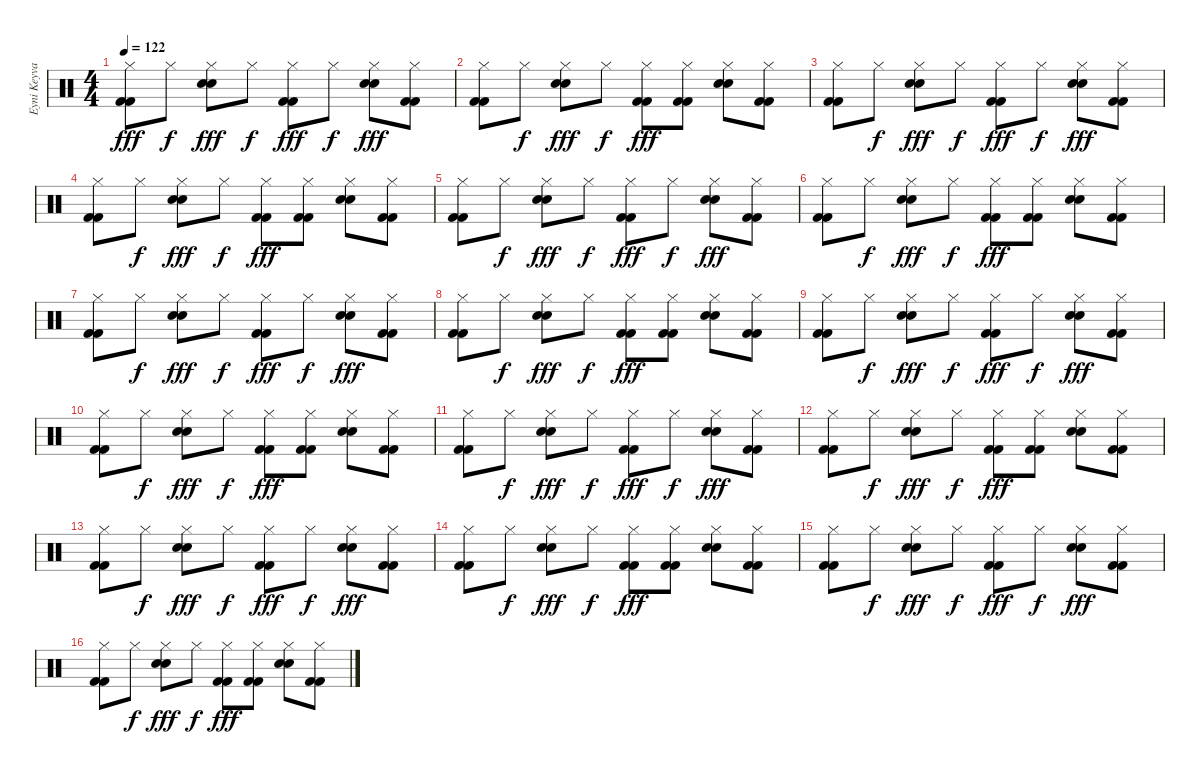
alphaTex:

\track ("Eyni Keyvanshokoh" "Eyni Keyva") {instrument percussion}
\staff {score}
\articulation defaults
\ts (4 4)
\tempo 122
\clef neutral
\ks c
("Hi-Hat (closed)" "Kick (hit) 2" "Kick (hit) 2").8{dy fff} "Hi-Hat (closed)".8{dy f} ("Hi-Hat (closed)" "Electric Snare (hit)" "Electric Snare (hit)").8{dy fff} "Hi-Hat (closed)".8{dy f} ("Hi-Hat (closed)" "Kick (hit) 2" "Kick (hit) 2").8{dy fff} "Hi-Hat (closed)".8{dy f} ("Hi-Hat (closed)" "Electric Snare (hit)" "Electric Snare (hit)").8{dy fff} ("Hi-Hat (closed)" "Kick (hit) 2" "Kick (hit) 2").8 |
("Hi-Hat (closed)" "Kick (hit) 2" "Kick (hit) 2").8 "Hi-Hat (closed)".8{dy f} ("Hi-Hat (closed)" "Electric Snare (hit)" "Electric Snare (hit)").8{dy fff} "Hi-Hat (closed)".8{dy f} ("Hi-Hat (closed)" "Kick (hit) 2" "Kick (hit) 2").8{dy fff} ("Hi-Hat (closed)" "Kick (hit) 2" "Kick (hit) 2").8 ("Hi-Hat (closed)" "Electric Snare (hit)" "Electric Snare (hit)").8 ("Hi-Hat (closed)" "Kick (hit) 2" "Kick (hit) 2").8 |
("Hi-Hat (closed)" "Kick (hit) 2" "Kick (hit) 2").8 "Hi-Hat (closed)".8{dy f} ("Hi-Hat (closed)" "Electric Snare (hit)" "Electric Snare (hit)").8{dy fff} "Hi-Hat (closed)".8{dy f} ("Hi-Hat (closed)" "Kick (hit) 2" "Kick (hit) 2").8{dy fff} "Hi-Hat (closed)".8{dy f} ("Hi-Hat (closed)" "Electric Snare (hit)" "Electric Snare (hit)").8{dy fff} ("Hi-Hat (closed)" "Kick (hit) 2" "Kick (hit) 2").8 |
("Hi-Hat (closed)" "Kick (hit) 2" "Kick (hit) 2").8 "Hi-Hat (closed)".8{dy f} ("Hi-Hat (closed)" "Electric Snare (hit)" "Electric Snare (hit)").8{dy fff} "Hi-Hat (closed)".8{dy f} ("Hi-Hat (closed)" "Kick (hit) 2" "Kick (hit) 2").8{dy fff} ("Hi-Hat (closed)" "Kick (hit) 2" "Kick (hit) 2").8 ("Hi-Hat (closed)" "Electric Snare (hit)" "Electric Snare (hit)").8 ("Hi-Hat (closed)" "Kick (hit) 2" "Kick (hit) 2").8 |
("Hi-Hat (closed)" "Kick (hit) 2" "Kick (hit) 2").8 "Hi-Hat (closed)".8{dy f} ("Hi-Hat (closed)" "Electric Snare (hit)" "Electric Snare (hit)").8{dy fff} "Hi-Hat (closed)".8{dy f} ("Hi-Hat (closed)" "Kick (hit) 2" "Kick (hit) 2").8{dy fff} "Hi-Hat (closed)".8{dy f} ("Hi-Hat (closed)" "Electric Snare (hit)" "Electric Snare (hit)").8{dy fff} ("Hi-Hat (closed)" "Kick (hit) 2" "Kick (hit) 2").8 |
("Hi-Hat (closed)" "Kick (hit) 2" "Kick (hit) 2").8 "Hi-Hat (closed)".8{dy f} ("Hi-Hat (closed)" "Electric Snare (hit)" "Electric Snare (hit)").8{dy fff} "Hi-Hat (closed)".8{dy f} ("Hi-Hat (closed)" "Kick (hit) 2" "Kick (hit) 2").8{dy fff} ("Hi-Hat (closed)" "Kick (hit) 2" "Kick (hit) 2").8 ("Hi-Hat (closed)" "Electric Snare (hit)" "Electric Snare (hit)").8 ("Hi-Hat (closed)" "Kick (hit) 2" "Kick (hit) 2").8 |
("Hi-Hat (closed)" "Kick (hit) 2" "Kick (hit) 2").8 "Hi-Hat (closed)".8{dy f} ("Hi-Hat (closed)" "Electric Snare (hit)" "Electric Snare (hit)").8{dy fff} "Hi-Hat (closed)".8{dy f} ("Hi-Hat (closed)" "Kick (hit) 2" "Kick (hit) 2").8{dy fff} "Hi-Hat (closed)".8{dy f} ("Hi-Hat (closed)" "Electric Snare (hit)" "Electric Snare (hit)").8{dy fff} ("Hi-Hat (closed)" "Kick (hit) 2" "Kick (hit) 2").8 |
("Hi-Hat (closed)" "Kick (hit) 2" "Kick (hit) 2").8 "Hi-Hat (closed)".8{dy f} ("Hi-Hat (closed)" "Electric Snare (hit)" "Electric Snare (hit)").8{dy fff} "Hi-Hat (closed)".8{dy f} ("Hi-Hat (closed)" "Kick (hit) 2" "Kick (hit) 2").8{dy fff} ("Hi-Hat (closed)" "Kick (hit) 2" "Kick (hit) 2").8 ("Hi-Hat (closed)" "Electric Snare (hit)" "Electric Snare (hit)").8 ("Hi-Hat (closed)" "Kick (hit) 2" "Kick (hit) 2").8 |
("Hi-Hat (closed)" "Kick (hit) 2" "Kick (hit) 2").8 "Hi-Hat (closed)".8{dy f} ("Hi-Hat (closed)" "Electric Snare (hit)" "Electric Snare (hit)").8{dy fff} "Hi-Hat (closed)".8{dy f} ("Hi-Hat (closed)" "Kick (hit) 2" "Kick (hit) 2").8{dy fff} "Hi-Hat (closed)".8{dy f} ("Hi-Hat (closed)" "Electric Snare (hit)" "Electric Snare (hit)").8{dy fff} ("Hi-Hat (closed)" "Kick (hit) 2" "Kick (hit) 2").8 |
("Hi-Hat (closed)" "Kick (hit) 2" "Kick (hit) 2").8 "Hi-Hat (closed)".8{dy f} ("Hi-Hat (closed)" "Electric Snare (hit)" "Electric Snare (hit)").8{dy fff} "Hi-Hat (closed)".8{dy f} ("Hi-Hat (closed)" "Kick (hit) 2" "Kick (hit) 2").8{dy fff} ("Hi-Hat (closed)" "Kick (hit) 2" "Kick (hit) 2").8 ("Hi-Hat (closed)" "Electric Snare (hit)" "Electric Snare (hit)").8 ("Hi-Hat (closed)" "Kick (hit) 2" "Kick (hit) 2").8 |
("Hi-Hat (closed)" "Kick (hit) 2" "Kick (hit) 2").8 "Hi-Hat (closed)".8{dy f} ("Hi-Hat (closed)" "Electric Snare (hit)" "Electric Snare (hit)").8{dy fff} "Hi-Hat (closed)".8{dy f} ("Hi-Hat (closed)" "Kick (hit) 2" "Kick (hit) 2").8{dy fff} "Hi-Hat (closed)".8{dy f} ("Hi-Hat (closed)" "Electric Snare (hit)" "Electric Snare (hit)").8{dy fff} ("Hi-Hat (closed)" "Kick (hit) 2" "Kick (hit) 2").8 |
("Hi-Hat (closed)" "Kick (hit) 2" "Kick (hit) 2").8 "Hi-Hat (closed)".8{dy f} ("Hi-Hat (closed)" "Electric Snare (hit)" "Electric Snare (hit)").8{dy fff} "Hi-Hat (closed)".8{dy f} ("Hi-Hat (closed)" "Kick (hit) 2" "Kick (hit) 2").8{dy fff} ("Hi-Hat (closed)" "Kick (hit) 2" "Kick (hit) 2").8 ("Hi-Hat (closed)" "Electric Snare (hit)" "Electric Snare (hit)").8 ("Hi-Hat (closed)" "Kick (hit) 2" "Kick (hit) 2").8 |
("Hi-Hat (closed)" "Kick (hit) 2" "Kick (hit) 2").8 "Hi-Hat (closed)".8{dy f} ("Hi-Hat (closed)" "Electric Snare (hit)" "Electric Snare (hit)").8{dy fff} "Hi-Hat (closed)".8{dy f} ("Hi-Hat (closed)" "Kick (hit) 2" "Kick (hit) 2").8{dy fff} "Hi-Hat (closed)".8{dy f} ("Hi-Hat (closed)" "Electric Snare (hit)" "Electric Snare (hit)").8{dy fff} ("Hi-Hat (closed)" "Kick (hit) 2" "Kick (hit) 2").8 |
("Hi-Hat (closed)" "Kick (hit) 2" "Kick (hit) 2").8 "Hi-Hat (closed)".8{dy f} ("Hi-Hat (closed)" "Electric Snare (hit)" "Electric Snare (hit)").8{dy fff} "Hi-Hat (closed)".8{dy f} ("Hi-Hat (closed)" "Kick (hit) 2" "Kick (hit) 2").8{dy fff} ("Hi-Hat (closed)" "Kick (hit) 2" "Kick (hit) 2").8 ("Hi-Hat (closed)" "Electric Snare (hit)" "Electric Snare (hit)").8 ("Hi-Hat (closed)" "Kick (hit) 2" "Kick (hit) 2").8 |
("Hi-Hat (closed)" "Kick (hit) 2" "Kick (hit) 2").8 "Hi-Hat (closed)".8{dy f} ("Hi-Hat (closed)" "Electric Snare (hit)" "Electric Snare (hit)").8{dy fff} "Hi-Hat (closed)".8{dy f} ("Hi-Hat (closed)" "Kick (hit) 2" "Kick (hit) 2").8{dy fff} "Hi-Hat (closed)".8{dy f} ("Hi-Hat (closed)" "Electric Snare (hit)" "Electric Snare (hit)").8{dy fff} ("Hi-Hat (closed)" "Kick (hit) 2" "Kick (hit) 2").8 |
("Hi-Hat (closed)" "Kick (hit) 2" "Kick (hit) 2").8 "Hi-Hat (closed)".8{dy f} ("Hi-Hat (closed)" "Electric Snare (hit)" "Electric Snare (hit)").8{dy fff} "Hi-Hat (closed)".8{dy f} ("Hi-Hat (closed)" "Kick (hit) 2" "Kick (hit) 2").8{dy fff} ("Hi-Hat (closed)" "Kick (hit) 2" "Kick (hit) 2").8 ("Hi-Hat (closed)" "Electric Snare (hit)" "Electric Snare (hit)").8 ("Hi-Hat (closed)" "Kick (hit) 2" "Kick (hit) 2").8
